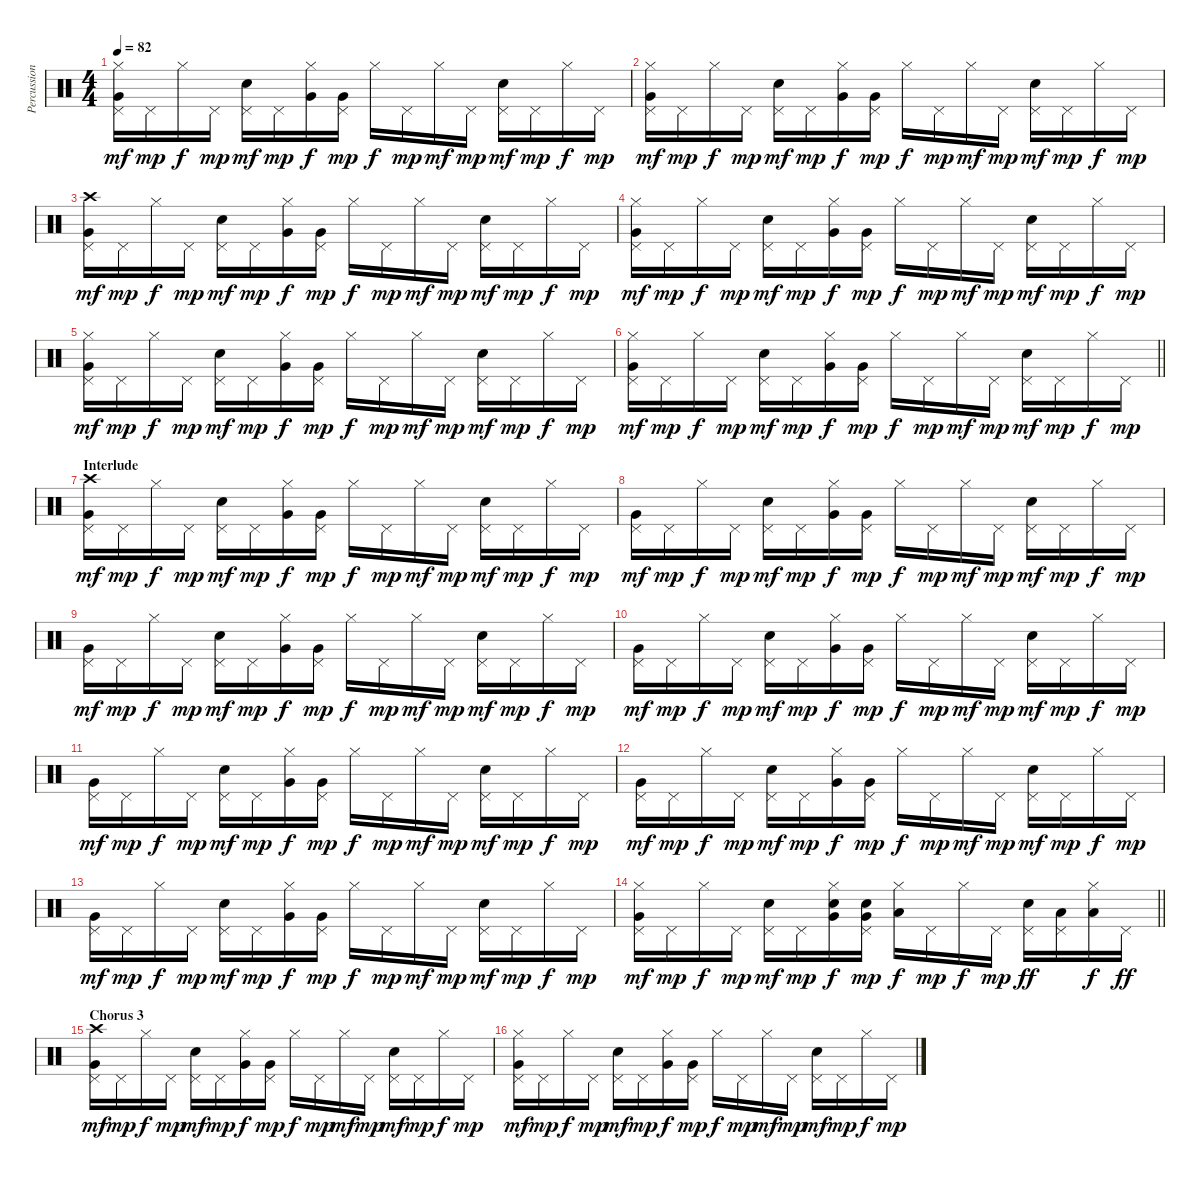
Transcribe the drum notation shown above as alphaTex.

\track ("Percussion" "Percussion") {instrument percussion}
\staff {score}
\articulation defaults
\ts (4 4)
\tempo 82
\clef neutral
\ks c
("Hi-Hat (closed)" "Very Low Tom (hit)" "Pedal Hi-Hat (hit)").16{dy mf} "Pedal Hi-Hat (hit)".16{dy mp} "Hi-Hat (closed)".16{dy f} "Pedal Hi-Hat (hit)".16{dy mp} ("Electric Snare (hit)" "Pedal Hi-Hat (hit)").16{dy mf} "Pedal Hi-Hat (hit)".16{dy mp} ("Hi-Hat (closed)" "Very Low Tom (hit)").16{dy f} ("Very Low Tom (hit)" "Pedal Hi-Hat (hit)").16{dy mp} "Hi-Hat (closed)".16{dy f} "Pedal Hi-Hat (hit)".16{dy mp} "Hi-Hat (closed)".16{dy mf} "Pedal Hi-Hat (hit)".16{dy mp} ("Electric Snare (hit)" "Pedal Hi-Hat (hit)").16{dy mf} "Pedal Hi-Hat (hit)".16{dy mp} "Hi-Hat (closed)".16{dy f} "Pedal Hi-Hat (hit)".16{dy mp} |
("Hi-Hat (closed)" "Very Low Tom (hit)" "Pedal Hi-Hat (hit)").16{dy mf} "Pedal Hi-Hat (hit)".16{dy mp} "Hi-Hat (closed)".16{dy f} "Pedal Hi-Hat (hit)".16{dy mp} ("Electric Snare (hit)" "Pedal Hi-Hat (hit)").16{dy mf} "Pedal Hi-Hat (hit)".16{dy mp} ("Hi-Hat (closed)" "Very Low Tom (hit)").16{dy f} ("Very Low Tom (hit)" "Pedal Hi-Hat (hit)").16{dy mp} "Hi-Hat (closed)".16{dy f} "Pedal Hi-Hat (hit)".16{dy mp} "Hi-Hat (closed)".16{dy mf} "Pedal Hi-Hat (hit)".16{dy mp} ("Electric Snare (hit)" "Pedal Hi-Hat (hit)").16{dy mf} "Pedal Hi-Hat (hit)".16{dy mp} "Hi-Hat (closed)".16{dy f} "Pedal Hi-Hat (hit)".16{dy mp} |
("Crash high (hit)" "Very Low Tom (hit)" "Pedal Hi-Hat (hit)").16{dy mf} "Pedal Hi-Hat (hit)".16{dy mp} "Hi-Hat (closed)".16{dy f} "Pedal Hi-Hat (hit)".16{dy mp} ("Electric Snare (hit)" "Pedal Hi-Hat (hit)").16{dy mf} "Pedal Hi-Hat (hit)".16{dy mp} ("Hi-Hat (closed)" "Very Low Tom (hit)").16{dy f} ("Very Low Tom (hit)" "Pedal Hi-Hat (hit)").16{dy mp} "Hi-Hat (closed)".16{dy f} "Pedal Hi-Hat (hit)".16{dy mp} "Hi-Hat (closed)".16{dy mf} "Pedal Hi-Hat (hit)".16{dy mp} ("Electric Snare (hit)" "Pedal Hi-Hat (hit)").16{dy mf} "Pedal Hi-Hat (hit)".16{dy mp} "Hi-Hat (closed)".16{dy f} "Pedal Hi-Hat (hit)".16{dy mp} |
("Hi-Hat (closed)" "Very Low Tom (hit)" "Pedal Hi-Hat (hit)").16{dy mf} "Pedal Hi-Hat (hit)".16{dy mp} "Hi-Hat (closed)".16{dy f} "Pedal Hi-Hat (hit)".16{dy mp} ("Electric Snare (hit)" "Pedal Hi-Hat (hit)").16{dy mf} "Pedal Hi-Hat (hit)".16{dy mp} ("Hi-Hat (closed)" "Very Low Tom (hit)").16{dy f} ("Very Low Tom (hit)" "Pedal Hi-Hat (hit)").16{dy mp} "Hi-Hat (closed)".16{dy f} "Pedal Hi-Hat (hit)".16{dy mp} "Hi-Hat (closed)".16{dy mf} "Pedal Hi-Hat (hit)".16{dy mp} ("Electric Snare (hit)" "Pedal Hi-Hat (hit)").16{dy mf} "Pedal Hi-Hat (hit)".16{dy mp} "Hi-Hat (closed)".16{dy f} "Pedal Hi-Hat (hit)".16{dy mp} |
("Hi-Hat (closed)" "Very Low Tom (hit)" "Pedal Hi-Hat (hit)").16{dy mf} "Pedal Hi-Hat (hit)".16{dy mp} "Hi-Hat (closed)".16{dy f} "Pedal Hi-Hat (hit)".16{dy mp} ("Electric Snare (hit)" "Pedal Hi-Hat (hit)").16{dy mf} "Pedal Hi-Hat (hit)".16{dy mp} ("Hi-Hat (closed)" "Very Low Tom (hit)").16{dy f} ("Very Low Tom (hit)" "Pedal Hi-Hat (hit)").16{dy mp} "Hi-Hat (closed)".16{dy f} "Pedal Hi-Hat (hit)".16{dy mp} "Hi-Hat (closed)".16{dy mf} "Pedal Hi-Hat (hit)".16{dy mp} ("Electric Snare (hit)" "Pedal Hi-Hat (hit)").16{dy mf} "Pedal Hi-Hat (hit)".16{dy mp} "Hi-Hat (closed)".16{dy f} "Pedal Hi-Hat (hit)".16{dy mp} |
\barLineRight lightlight
("Hi-Hat (closed)" "Very Low Tom (hit)" "Pedal Hi-Hat (hit)").16{dy mf} "Pedal Hi-Hat (hit)".16{dy mp} "Hi-Hat (closed)".16{dy f} "Pedal Hi-Hat (hit)".16{dy mp} ("Electric Snare (hit)" "Pedal Hi-Hat (hit)").16{dy mf} "Pedal Hi-Hat (hit)".16{dy mp} ("Hi-Hat (closed)" "Very Low Tom (hit)").16{dy f} ("Very Low Tom (hit)" "Pedal Hi-Hat (hit)").16{dy mp} "Hi-Hat (closed)".16{dy f} "Pedal Hi-Hat (hit)".16{dy mp} "Hi-Hat (closed)".16{dy mf} "Pedal Hi-Hat (hit)".16{dy mp} ("Electric Snare (hit)" "Pedal Hi-Hat (hit)").16{dy mf} "Pedal Hi-Hat (hit)".16{dy mp} "Hi-Hat (closed)".16{dy f} "Pedal Hi-Hat (hit)".16{dy mp} |
\section ("" "Interlude")
("Crash high (hit)" "Very Low Tom (hit)" "Pedal Hi-Hat (hit)").16{dy mf} "Pedal Hi-Hat (hit)".16{dy mp} "Hi-Hat (closed)".16{dy f} "Pedal Hi-Hat (hit)".16{dy mp} ("Electric Snare (hit)" "Pedal Hi-Hat (hit)").16{dy mf} "Pedal Hi-Hat (hit)".16{dy mp} ("Hi-Hat (closed)" "Very Low Tom (hit)").16{dy f} ("Very Low Tom (hit)" "Pedal Hi-Hat (hit)").16{dy mp} "Hi-Hat (closed)".16{dy f} "Pedal Hi-Hat (hit)".16{dy mp} "Hi-Hat (closed)".16{dy mf} "Pedal Hi-Hat (hit)".16{dy mp} ("Electric Snare (hit)" "Pedal Hi-Hat (hit)").16{dy mf} "Pedal Hi-Hat (hit)".16{dy mp} "Hi-Hat (closed)".16{dy f} "Pedal Hi-Hat (hit)".16{dy mp} |
("Very Low Tom (hit)" "Pedal Hi-Hat (hit)").16{dy mf} "Pedal Hi-Hat (hit)".16{dy mp} "Hi-Hat (closed)".16{dy f} "Pedal Hi-Hat (hit)".16{dy mp} ("Electric Snare (hit)" "Pedal Hi-Hat (hit)").16{dy mf} "Pedal Hi-Hat (hit)".16{dy mp} ("Hi-Hat (closed)" "Very Low Tom (hit)").16{dy f} ("Very Low Tom (hit)" "Pedal Hi-Hat (hit)").16{dy mp} "Hi-Hat (closed)".16{dy f} "Pedal Hi-Hat (hit)".16{dy mp} "Hi-Hat (closed)".16{dy mf} "Pedal Hi-Hat (hit)".16{dy mp} ("Electric Snare (hit)" "Pedal Hi-Hat (hit)").16{dy mf} "Pedal Hi-Hat (hit)".16{dy mp} "Hi-Hat (closed)".16{dy f} "Pedal Hi-Hat (hit)".16{dy mp} |
("Very Low Tom (hit)" "Pedal Hi-Hat (hit)").16{dy mf} "Pedal Hi-Hat (hit)".16{dy mp} "Hi-Hat (closed)".16{dy f} "Pedal Hi-Hat (hit)".16{dy mp} ("Electric Snare (hit)" "Pedal Hi-Hat (hit)").16{dy mf} "Pedal Hi-Hat (hit)".16{dy mp} ("Hi-Hat (closed)" "Very Low Tom (hit)").16{dy f} ("Very Low Tom (hit)" "Pedal Hi-Hat (hit)").16{dy mp} "Hi-Hat (closed)".16{dy f} "Pedal Hi-Hat (hit)".16{dy mp} "Hi-Hat (closed)".16{dy mf} "Pedal Hi-Hat (hit)".16{dy mp} ("Electric Snare (hit)" "Pedal Hi-Hat (hit)").16{dy mf} "Pedal Hi-Hat (hit)".16{dy mp} "Hi-Hat (closed)".16{dy f} "Pedal Hi-Hat (hit)".16{dy mp} |
("Very Low Tom (hit)" "Pedal Hi-Hat (hit)").16{dy mf} "Pedal Hi-Hat (hit)".16{dy mp} "Hi-Hat (closed)".16{dy f} "Pedal Hi-Hat (hit)".16{dy mp} ("Electric Snare (hit)" "Pedal Hi-Hat (hit)").16{dy mf} "Pedal Hi-Hat (hit)".16{dy mp} ("Hi-Hat (closed)" "Very Low Tom (hit)").16{dy f} ("Very Low Tom (hit)" "Pedal Hi-Hat (hit)").16{dy mp} "Hi-Hat (closed)".16{dy f} "Pedal Hi-Hat (hit)".16{dy mp} "Hi-Hat (closed)".16{dy mf} "Pedal Hi-Hat (hit)".16{dy mp} ("Electric Snare (hit)" "Pedal Hi-Hat (hit)").16{dy mf} "Pedal Hi-Hat (hit)".16{dy mp} "Hi-Hat (closed)".16{dy f} "Pedal Hi-Hat (hit)".16{dy mp} |
("Very Low Tom (hit)" "Pedal Hi-Hat (hit)").16{dy mf} "Pedal Hi-Hat (hit)".16{dy mp} "Hi-Hat (closed)".16{dy f} "Pedal Hi-Hat (hit)".16{dy mp} ("Electric Snare (hit)" "Pedal Hi-Hat (hit)").16{dy mf} "Pedal Hi-Hat (hit)".16{dy mp} ("Hi-Hat (closed)" "Very Low Tom (hit)").16{dy f} ("Very Low Tom (hit)" "Pedal Hi-Hat (hit)").16{dy mp} "Hi-Hat (closed)".16{dy f} "Pedal Hi-Hat (hit)".16{dy mp} "Hi-Hat (closed)".16{dy mf} "Pedal Hi-Hat (hit)".16{dy mp} ("Electric Snare (hit)" "Pedal Hi-Hat (hit)").16{dy mf} "Pedal Hi-Hat (hit)".16{dy mp} "Hi-Hat (closed)".16{dy f} "Pedal Hi-Hat (hit)".16{dy mp} |
("Very Low Tom (hit)" "Pedal Hi-Hat (hit)").16{dy mf} "Pedal Hi-Hat (hit)".16{dy mp} "Hi-Hat (closed)".16{dy f} "Pedal Hi-Hat (hit)".16{dy mp} ("Electric Snare (hit)" "Pedal Hi-Hat (hit)").16{dy mf} "Pedal Hi-Hat (hit)".16{dy mp} ("Hi-Hat (closed)" "Very Low Tom (hit)").16{dy f} ("Very Low Tom (hit)" "Pedal Hi-Hat (hit)").16{dy mp} "Hi-Hat (closed)".16{dy f} "Pedal Hi-Hat (hit)".16{dy mp} "Hi-Hat (closed)".16{dy mf} "Pedal Hi-Hat (hit)".16{dy mp} ("Electric Snare (hit)" "Pedal Hi-Hat (hit)").16{dy mf} "Pedal Hi-Hat (hit)".16{dy mp} "Hi-Hat (closed)".16{dy f} "Pedal Hi-Hat (hit)".16{dy mp} |
("Very Low Tom (hit)" "Pedal Hi-Hat (hit)").16{dy mf} "Pedal Hi-Hat (hit)".16{dy mp} "Hi-Hat (closed)".16{dy f} "Pedal Hi-Hat (hit)".16{dy mp} ("Electric Snare (hit)" "Pedal Hi-Hat (hit)").16{dy mf} "Pedal Hi-Hat (hit)".16{dy mp} ("Hi-Hat (closed)" "Very Low Tom (hit)").16{dy f} ("Very Low Tom (hit)" "Pedal Hi-Hat (hit)").16{dy mp} "Hi-Hat (closed)".16{dy f} "Pedal Hi-Hat (hit)".16{dy mp} "Hi-Hat (closed)".16{dy mf} "Pedal Hi-Hat (hit)".16{dy mp} ("Electric Snare (hit)" "Pedal Hi-Hat (hit)").16{dy mf} "Pedal Hi-Hat (hit)".16{dy mp} "Hi-Hat (closed)".16{dy f} "Pedal Hi-Hat (hit)".16{dy mp} |
\barLineRight lightlight
("Hi-Hat (closed)" "Very Low Tom (hit)" "Pedal Hi-Hat (hit)").16{dy mf} "Pedal Hi-Hat (hit)".16{dy mp} "Hi-Hat (closed)".16{dy f} "Pedal Hi-Hat (hit)".16{dy mp} ("Electric Snare (hit)" "Pedal Hi-Hat (hit)").16{dy mf} "Pedal Hi-Hat (hit)".16{dy mp} ("Hi-Hat (closed)" "Electric Snare (hit)" "Very Low Tom (hit)").16{dy f} ("Electric Snare (hit)" "Very Low Tom (hit)" "Pedal Hi-Hat (hit)").16{dy mp} ("Hi-Hat (closed)" "Low Tom (hit)").16{dy f} "Pedal Hi-Hat (hit)".16{dy mp} "Hi-Hat (closed)".16{dy f} "Pedal Hi-Hat (hit)".16{dy mp} ("Electric Snare (hit)" "Pedal Hi-Hat (hit)").16{dy ff} ("Low Tom (hit)" "Pedal Hi-Hat (hit)").16 ("Hi-Hat (closed)" "Low Tom (hit)").16{dy f} "Pedal Hi-Hat (hit)".16{dy ff} |
\section ("" "Chorus 3")
("Crash high (hit)" "Very Low Tom (hit)" "Pedal Hi-Hat (hit)").16{dy mf} "Pedal Hi-Hat (hit)".16{dy mp} "Hi-Hat (closed)".16{dy f} "Pedal Hi-Hat (hit)".16{dy mp} ("Electric Snare (hit)" "Pedal Hi-Hat (hit)").16{dy mf} "Pedal Hi-Hat (hit)".16{dy mp} ("Hi-Hat (closed)" "Very Low Tom (hit)").16{dy f} ("Very Low Tom (hit)" "Pedal Hi-Hat (hit)").16{dy mp} "Hi-Hat (closed)".16{dy f} "Pedal Hi-Hat (hit)".16{dy mp} "Hi-Hat (closed)".16{dy mf} "Pedal Hi-Hat (hit)".16{dy mp} ("Electric Snare (hit)" "Pedal Hi-Hat (hit)").16{dy mf} "Pedal Hi-Hat (hit)".16{dy mp} "Hi-Hat (closed)".16{dy f} "Pedal Hi-Hat (hit)".16{dy mp} |
("Hi-Hat (closed)" "Very Low Tom (hit)" "Pedal Hi-Hat (hit)").16{dy mf} "Pedal Hi-Hat (hit)".16{dy mp} "Hi-Hat (closed)".16{dy f} "Pedal Hi-Hat (hit)".16{dy mp} ("Electric Snare (hit)" "Pedal Hi-Hat (hit)").16{dy mf} "Pedal Hi-Hat (hit)".16{dy mp} ("Hi-Hat (closed)" "Very Low Tom (hit)").16{dy f} ("Very Low Tom (hit)" "Pedal Hi-Hat (hit)").16{dy mp} "Hi-Hat (closed)".16{dy f} "Pedal Hi-Hat (hit)".16{dy mp} "Hi-Hat (closed)".16{dy mf} "Pedal Hi-Hat (hit)".16{dy mp} ("Electric Snare (hit)" "Pedal Hi-Hat (hit)").16{dy mf} "Pedal Hi-Hat (hit)".16{dy mp} "Hi-Hat (closed)".16{dy f} "Pedal Hi-Hat (hit)".16{dy mp}
